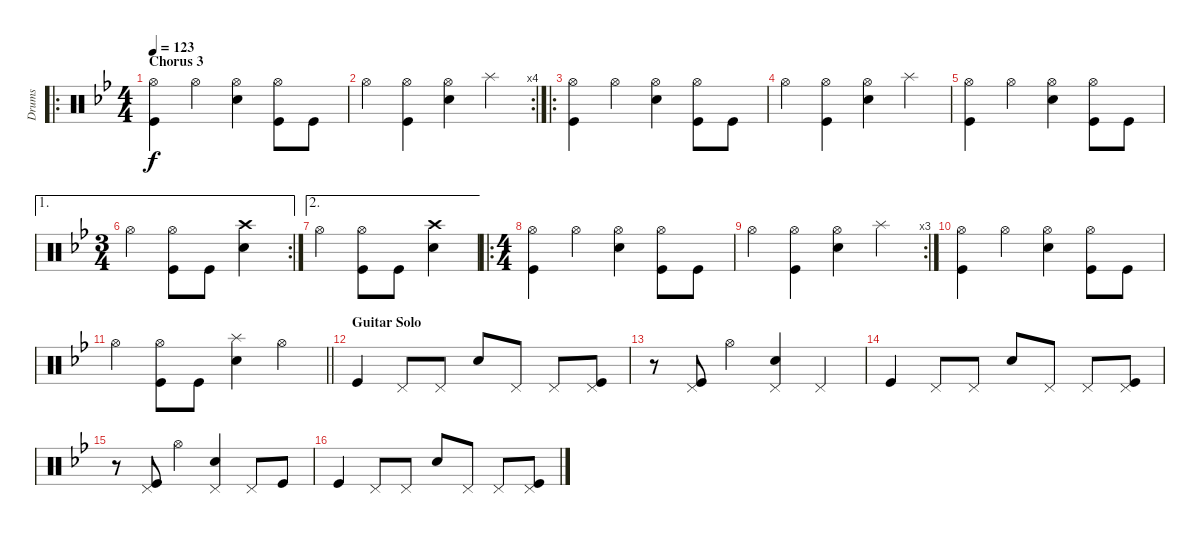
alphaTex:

\track ("Drums" "Drums") {instrument percussion}
\staff {score}
\articulation defaults
\ro
\ts (4 4)
\section ("" "Chorus 3")
\tempo 123
\clef neutral
\ks bb
("Hi-Hat (open)" "Kick (hit)").4{dy f} "Hi-Hat (open)".4 ("Hi-Hat (open)" "Snare (hit) 2").4 ("Hi-Hat (open)" "Kick (hit)").8 "Kick (hit)".8 |
\rc 4 "Hi-Hat (open)".4
("Hi-Hat (open)" "Kick (hit)").4 ("Hi-Hat (open)" "Snare (hit) 2").4 "Splash (hit)".4 |
\ro
("Hi-Hat (open)" "Kick (hit)").4 "Hi-Hat (open)".4 ("Hi-Hat (open)" "Snare (hit) 2").4 ("Hi-Hat (open)" "Kick (hit)").8 "Kick (hit)".8 |
"Hi-Hat (open)".4 ("Hi-Hat (open)" "Kick (hit)").4 ("Hi-Hat (open)" "Snare (hit) 2").4 "Splash (hit)".4 |
("Hi-Hat (open)" "Kick (hit)").4 "Hi-Hat (open)".4 ("Hi-Hat (open)" "Snare (hit) 2").4 ("Hi-Hat (open)" "Kick (hit)").8 "Kick (hit)".8 |
\ae 1
\rc 2
\ts (3 4)
"Hi-Hat (open)".4 ("Hi-Hat (open)" "Kick (hit)").8 "Kick (hit)".8 ("Crash high (hit)" "Snare (hit) 2").4 |
\ae 2 "Hi-Hat (open)".4
("Hi-Hat (open)" "Kick (hit)").8 "Kick (hit)".8 ("Crash high (hit)" "Snare (hit) 2").4 |
\ro
\ts (4 4)
("Hi-Hat (open)" "Kick (hit)").4 "Hi-Hat (open)".4 ("Hi-Hat (open)" "Snare (hit) 2").4 ("Hi-Hat (open)" "Kick (hit)").8 "Kick (hit)".8 |
\rc 3 "Hi-Hat (open)".4
("Hi-Hat (open)" "Kick (hit)").4 ("Hi-Hat (open)" "Snare (hit) 2").4 "Splash (hit)".4 |
("Hi-Hat (open)" "Kick (hit)").4 "Hi-Hat (open)".4 ("Hi-Hat (open)" "Snare (hit) 2").4 ("Hi-Hat (open)" "Kick (hit)").8 "Kick (hit)".8 |
\barLineRight lightlight "Hi-Hat (open)".4
("Hi-Hat (open)" "Kick (hit)").8 "Kick (hit)".8 ("Splash (hit)" "Snare (hit) 2").4 "Hi-Hat (open)".4 |
\section ("" "Guitar Solo")
"Kick (hit)".4 "Pedal Hi-Hat (hit)".8 "Pedal Hi-Hat (hit)".8 "Snare (hit) 2".8 "Pedal Hi-Hat (hit)".8 "Pedal Hi-Hat (hit)".8 ("Pedal Hi-Hat (hit)" "Kick (hit)").8 |
r.8 ("Pedal Hi-Hat (hit)" "Kick (hit)").8 "Hi-Hat (open)".4 ("Pedal Hi-Hat (hit)" "Snare (hit) 2").4 "Pedal Hi-Hat (hit)".4 |
"Kick (hit)".4 "Pedal Hi-Hat (hit)".8 "Pedal Hi-Hat (hit)".8 "Snare (hit) 2".8 "Pedal Hi-Hat (hit)".8 "Pedal Hi-Hat (hit)".8 ("Pedal Hi-Hat (hit)" "Kick (hit)").8 |
r.8 ("Pedal Hi-Hat (hit)" "Kick (hit)").8 "Hi-Hat (open)".4 ("Pedal Hi-Hat (hit)" "Snare (hit) 2").4 "Pedal Hi-Hat (hit)".8 "Kick (hit)".8 |
"Kick (hit)".4 "Pedal Hi-Hat (hit)".8 "Pedal Hi-Hat (hit)".8 "Snare (hit) 2".8 "Pedal Hi-Hat (hit)".8 "Pedal Hi-Hat (hit)".8 ("Pedal Hi-Hat (hit)" "Kick (hit)").8
